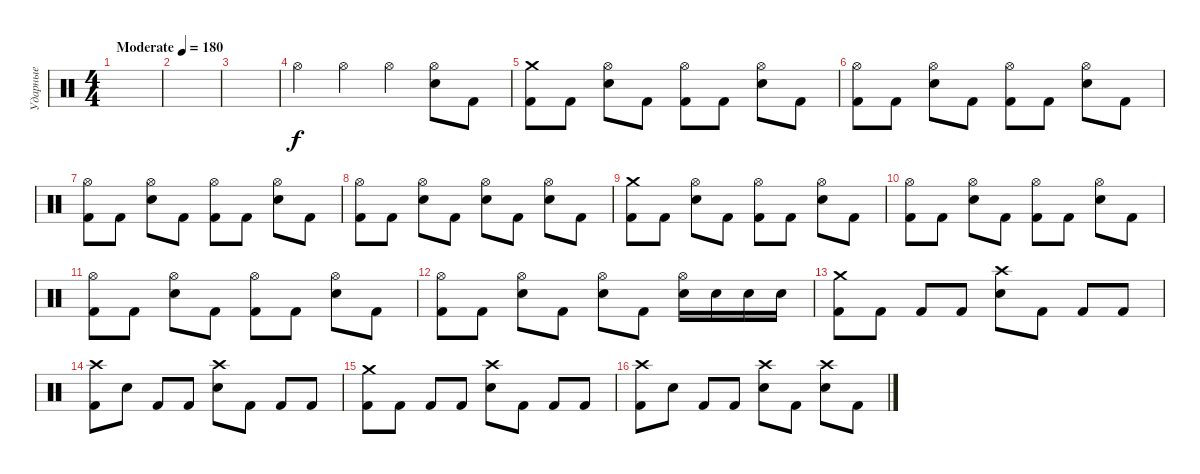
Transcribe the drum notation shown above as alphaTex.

\track ("Ударные" "Ударные") {instrument percussion}
\staff {score}
\articulation defaults
\ts (4 4)
\tempo (180 "Moderate")
\clef neutral
\ks c
|
|
|
"Hi-Hat (open)".4 "Hi-Hat (open)".4 "Hi-Hat (open)".4 ("Hi-Hat (open)" "Electric Snare (hit)").8 "Kick (hit) 2".8 |
("Crash medium (hit)" "Kick (hit) 2").8 "Kick (hit) 2".8 ("Hi-Hat (open)" "Electric Snare (hit)").8 "Kick (hit) 2".8 ("Hi-Hat (open)" "Kick (hit) 2").8 "Kick (hit) 2".8 ("Hi-Hat (open)" "Electric Snare (hit)").8 "Kick (hit) 2".8 |
("Hi-Hat (open)" "Kick (hit) 2").8 "Kick (hit) 2".8 ("Hi-Hat (open)" "Electric Snare (hit)").8 "Kick (hit) 2".8 ("Hi-Hat (open)" "Kick (hit) 2").8 "Kick (hit) 2".8 ("Hi-Hat (open)" "Electric Snare (hit)").8 "Kick (hit) 2".8 |
("Hi-Hat (open)" "Kick (hit) 2").8 "Kick (hit) 2".8 ("Hi-Hat (open)" "Electric Snare (hit)").8 "Kick (hit) 2".8 ("Hi-Hat (open)" "Kick (hit) 2").8 "Kick (hit) 2".8 ("Hi-Hat (open)" "Electric Snare (hit)").8 "Kick (hit) 2".8 |
("Hi-Hat (open)" "Kick (hit) 2").8 "Kick (hit) 2".8 ("Hi-Hat (open)" "Electric Snare (hit)").8 "Kick (hit) 2".8 ("Hi-Hat (open)" "Electric Snare (hit)").8 "Kick (hit) 2".8 ("Hi-Hat (open)" "Electric Snare (hit)").8 "Kick (hit) 2".8 |
("Crash medium (hit)" "Kick (hit) 2").8 "Kick (hit) 2".8 ("Hi-Hat (open)" "Electric Snare (hit)").8 "Kick (hit) 2".8 ("Hi-Hat (open)" "Kick (hit) 2").8 "Kick (hit) 2".8 ("Hi-Hat (open)" "Electric Snare (hit)").8 "Kick (hit) 2".8 |
("Hi-Hat (open)" "Kick (hit) 2").8 "Kick (hit) 2".8 ("Hi-Hat (open)" "Electric Snare (hit)").8 "Kick (hit) 2".8 ("Hi-Hat (open)" "Kick (hit) 2").8 "Kick (hit) 2".8 ("Hi-Hat (open)" "Electric Snare (hit)").8 "Kick (hit) 2".8 |
("Hi-Hat (open)" "Kick (hit) 2").8 "Kick (hit) 2".8 ("Hi-Hat (open)" "Electric Snare (hit)").8 "Kick (hit) 2".8 ("Hi-Hat (open)" "Kick (hit) 2").8 "Kick (hit) 2".8 ("Hi-Hat (open)" "Electric Snare (hit)").8 "Kick (hit) 2".8 |
("Hi-Hat (open)" "Kick (hit) 2").8 "Kick (hit) 2".8 ("Hi-Hat (open)" "Electric Snare (hit)").8 "Kick (hit) 2".8 ("Hi-Hat (open)" "Electric Snare (hit)").8 "Kick (hit) 2".8 ("Hi-Hat (open)" "Electric Snare (hit)").16 "Electric Snare (hit)".16 "Electric Snare (hit)".16 "Electric Snare (hit)".16 |
("Crash medium (hit)" "Kick (hit) 2").8 "Kick (hit) 2".8 "Kick (hit) 2".8 "Kick (hit) 2".8 ("Crash high (hit)" "Electric Snare (hit)").8 "Kick (hit) 2".8 "Kick (hit) 2".8 "Kick (hit) 2".8 |
("Crash high (hit)" "Kick (hit) 2").8 "Electric Snare (hit)".8 "Kick (hit) 2".8 "Kick (hit) 2".8 ("Crash high (hit)" "Electric Snare (hit)").8 "Kick (hit) 2".8 "Kick (hit) 2".8 "Kick (hit) 2".8 |
("Crash medium (hit)" "Kick (hit) 2").8 "Kick (hit) 2".8 "Kick (hit) 2".8 "Kick (hit) 2".8 ("Crash high (hit)" "Electric Snare (hit)").8 "Kick (hit) 2".8 "Kick (hit) 2".8 "Kick (hit) 2".8 |
("Crash high (hit)" "Kick (hit) 2").8 "Electric Snare (hit)".8 "Kick (hit) 2".8 "Kick (hit) 2".8 ("Crash high (hit)" "Electric Snare (hit)").8 "Kick (hit) 2".8 ("Crash high (hit)" "Electric Snare (hit)").8 "Kick (hit) 2".8
